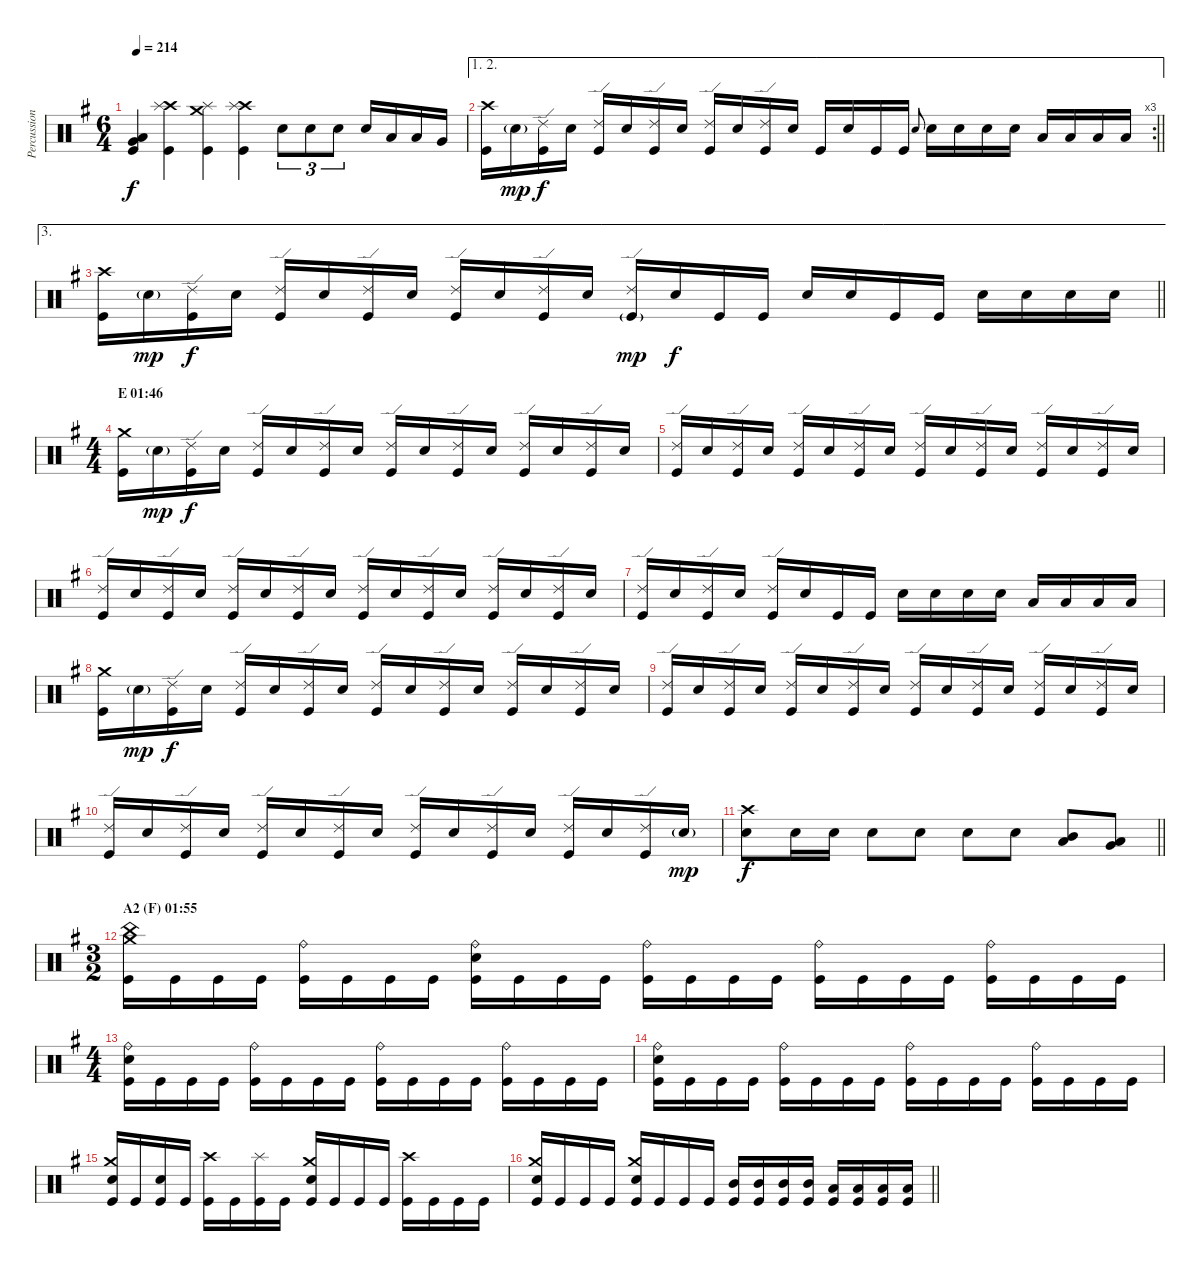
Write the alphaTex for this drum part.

\track ("Percussion" "Percussion") {instrument percussion}
\staff {score}
\articulation defaults
\ts (6 4)
\tempo 214
\clef neutral
\ks eminor
("Very Low Tom (hit)" "Low Floor Tom (hit)" "Kick (hit)").4{dy f} ("Crash high (hit)" "Splash (hit)" "Kick (hit)").4 ("Crash medium (hit)" "Splash (hit)" "Kick (hit)").4 ("Crash high (hit)" "Splash (hit)" "Kick (hit)").4 "Snare (hit) 2".8{tu (3 2)} "Snare (hit) 2".8{tu (3 2)} "Snare (hit) 2".8{tu (3 2)} "Snare (hit) 2".16 "Low Tom (hit)".16 "Low Tom (hit)".16 "Very Low Tom (hit)".16 |
\ae (1 2)
\rc 3
\barLineRight lightlight
("Crash high (hit)" "Kick (hit)").16 "Snare (hit) 2"{g}.16{dy mp} ("Ride (edge) 2" "Kick (hit)").16{dy f} "Snare (hit) 2".16 ("Ride (edge) 2" "Kick (hit)").16 "Snare (hit) 2".16 ("Ride (edge) 2" "Kick (hit)").16 "Snare (hit) 2".16 ("Ride (edge) 2" "Kick (hit)").16 "Snare (hit) 2".16 ("Ride (edge) 2" "Kick (hit)").16 "Snare (hit) 2".16 "Kick (hit)".16 "Snare (hit) 2".16 "Kick (hit)".16 "Kick (hit)".16 "Snare (hit) 2".8{gr onbeat} "Snare (hit) 2".16 "Snare (hit) 2".16 "Snare (hit) 2".16 "Snare (hit) 2".16 "Low Tom (hit)".16 "Low Tom (hit)".16 "Low Tom (hit)".16 "Low Tom (hit)".16 |
\ae 3
\barLineRight lightlight
("Crash high (hit)" "Kick (hit)").16 "Snare (hit) 2"{g}.16{dy mp} ("Ride (edge) 2" "Kick (hit)").16{dy f} "Snare (hit) 2".16 ("Ride (edge) 2" "Kick (hit)").16 "Snare (hit) 2".16 ("Ride (edge) 2" "Kick (hit)").16 "Snare (hit) 2".16 ("Ride (edge) 2" "Kick (hit)").16 "Snare (hit) 2".16 ("Ride (edge) 2" "Kick (hit)").16 "Snare (hit) 2".16 ("Ride (edge) 2" "Kick (hit)"{g}).16{dy mp} "Snare (hit) 2".16{dy f} "Kick (hit)".16 "Kick (hit)".16 "Snare (hit) 2".16 "Snare (hit) 2".16 "Kick (hit)".16 "Kick (hit)".16 "Snare (hit) 2".16 "Snare (hit) 2".16 "Snare (hit) 2".16 "Snare (hit) 2".16 |
\ts (4 4)
\section ("" "E 01:46")
("Crash medium (hit)" "Kick (hit)").16 "Snare (hit) 2"{g}.16{dy mp} ("Ride (edge) 2" "Kick (hit)").16{dy f} "Snare (hit) 2".16 ("Ride (edge) 2" "Kick (hit)").16 "Snare (hit) 2".16 ("Ride (edge) 2" "Kick (hit)").16 "Snare (hit) 2".16 ("Ride (edge) 2" "Kick (hit)").16 "Snare (hit) 2".16 ("Ride (edge) 2" "Kick (hit)").16 "Snare (hit) 2".16 ("Ride (edge) 2" "Kick (hit)").16 "Snare (hit) 2".16 ("Ride (edge) 2" "Kick (hit)").16 "Snare (hit) 2".16 |
("Ride (edge) 2" "Kick (hit)").16 "Snare (hit) 2".16 ("Ride (edge) 2" "Kick (hit)").16 "Snare (hit) 2".16 ("Ride (edge) 2" "Kick (hit)").16 "Snare (hit) 2".16 ("Ride (edge) 2" "Kick (hit)").16 "Snare (hit) 2".16 ("Ride (edge) 2" "Kick (hit)").16 "Snare (hit) 2".16 ("Ride (edge) 2" "Kick (hit)").16 "Snare (hit) 2".16 ("Ride (edge) 2" "Kick (hit)").16 "Snare (hit) 2".16 ("Ride (edge) 2" "Kick (hit)").16 "Snare (hit) 2".16 |
("Ride (edge) 2" "Kick (hit)").16 "Snare (hit) 2".16 ("Ride (edge) 2" "Kick (hit)").16 "Snare (hit) 2".16 ("Ride (edge) 2" "Kick (hit)").16 "Snare (hit) 2".16 ("Ride (edge) 2" "Kick (hit)").16 "Snare (hit) 2".16 ("Ride (edge) 2" "Kick (hit)").16 "Snare (hit) 2".16 ("Ride (edge) 2" "Kick (hit)").16 "Snare (hit) 2".16 ("Ride (edge) 2" "Kick (hit)").16 "Snare (hit) 2".16 ("Ride (edge) 2" "Kick (hit)").16 "Snare (hit) 2".16 |
("Ride (edge) 2" "Kick (hit)").16 "Snare (hit) 2".16 ("Ride (edge) 2" "Kick (hit)").16 "Snare (hit) 2".16 ("Ride (edge) 2" "Kick (hit)").16 "Snare (hit) 2".16 "Kick (hit)".16 "Kick (hit)".16 "Snare (hit) 2".16 "Snare (hit) 2".16 "Snare (hit) 2".16 "Snare (hit) 2".16 "Low Tom (hit)".16 "Low Tom (hit)".16 "Low Tom (hit)".16 "Low Tom (hit)".16 |
("Crash medium (hit)" "Kick (hit)").16 "Snare (hit) 2"{g}.16{dy mp} ("Ride (edge) 2" "Kick (hit)").16{dy f} "Snare (hit) 2".16 ("Ride (edge) 2" "Kick (hit)").16 "Snare (hit) 2".16 ("Ride (edge) 2" "Kick (hit)").16 "Snare (hit) 2".16 ("Ride (edge) 2" "Kick (hit)").16 "Snare (hit) 2".16 ("Ride (edge) 2" "Kick (hit)").16 "Snare (hit) 2".16 ("Ride (edge) 2" "Kick (hit)").16 "Snare (hit) 2".16 ("Ride (edge) 2" "Kick (hit)").16 "Snare (hit) 2".16 |
("Ride (edge) 2" "Kick (hit)").16 "Snare (hit) 2".16 ("Ride (edge) 2" "Kick (hit)").16 "Snare (hit) 2".16 ("Ride (edge) 2" "Kick (hit)").16 "Snare (hit) 2".16 ("Ride (edge) 2" "Kick (hit)").16 "Snare (hit) 2".16 ("Ride (edge) 2" "Kick (hit)").16 "Snare (hit) 2".16 ("Ride (edge) 2" "Kick (hit)").16 "Snare (hit) 2".16 ("Ride (edge) 2" "Kick (hit)").16 "Snare (hit) 2".16 ("Ride (edge) 2" "Kick (hit)").16 "Snare (hit) 2".16 |
("Ride (edge) 2" "Kick (hit)").16 "Snare (hit) 2".16 ("Ride (edge) 2" "Kick (hit)").16 "Snare (hit) 2".16 ("Ride (edge) 2" "Kick (hit)").16 "Snare (hit) 2".16 ("Ride (edge) 2" "Kick (hit)").16 "Snare (hit) 2".16 ("Ride (edge) 2" "Kick (hit)").16 "Snare (hit) 2".16 ("Ride (edge) 2" "Kick (hit)").16 "Snare (hit) 2".16 ("Ride (edge) 2" "Kick (hit)").16 "Snare (hit) 2".16 ("Ride (edge) 2" "Kick (hit)").16 "Snare (hit) 2"{g}.16{dy mp} |
\barLineRight lightlight
("Crash high (hit)" "Snare (hit) 2").8{dy f} "Snare (hit) 2".16 "Snare (hit) 2".16 "Snare (hit) 2".8 "Snare (hit) 2".8 "Snare (hit) 2".8 "Snare (hit) 2".8 ("Mid Tom (hit)" "Low Tom (hit)").8 ("Low Tom (hit)" "Very Low Tom (hit)").8 |
\ts (3 2)
\section ("" "A2 (F) 01:55")
("Crash medium (hit)" "China (hit)" "Kick (hit)").16 "Kick (hit)".16 "Kick (hit)".16 "Kick (hit)".16 ("Ride (bell)" "Kick (hit)").16 "Kick (hit)".16 "Kick (hit)".16 "Kick (hit)".16 ("Ride (bell)" "Snare (hit) 2" "Kick (hit)").16 "Kick (hit)".16 "Kick (hit)".16 "Kick (hit)".16 ("Ride (bell)" "Kick (hit)").16 "Kick (hit)".16 "Kick (hit)".16 "Kick (hit)".16 ("Ride (bell)" "Kick (hit)").16 "Kick (hit)".16 "Kick (hit)".16 "Kick (hit)".16 ("Ride (bell)" "Kick (hit)").16 "Kick (hit)".16 "Kick (hit)".16 "Kick (hit)".16 |
\ts (4 4)
("Ride (bell)" "Snare (hit) 2" "Kick (hit)").16 "Kick (hit)".16 "Kick (hit)".16 "Kick (hit)".16 ("Ride (bell)" "Kick (hit)").16 "Kick (hit)".16 "Kick (hit)".16 "Kick (hit)".16 ("Ride (bell)" "Kick (hit)").16 "Kick (hit)".16 "Kick (hit)".16 "Kick (hit)".16 ("Ride (bell)" "Kick (hit)").16 "Kick (hit)".16 "Kick (hit)".16 "Kick (hit)".16 |
("Ride (bell)" "Snare (hit) 2" "Kick (hit)").16 "Kick (hit)".16 "Kick (hit)".16 "Kick (hit)".16 ("Ride (bell)" "Kick (hit)").16 "Kick (hit)".16 "Kick (hit)".16 "Kick (hit)".16 ("Ride (bell)" "Kick (hit)").16 "Kick (hit)".16 "Kick (hit)".16 "Kick (hit)".16 ("Ride (bell)" "Kick (hit)").16 "Kick (hit)".16 "Kick (hit)".16 "Kick (hit)".16 |
("Crash medium (hit)" "Snare (hit) 2" "Kick (hit)").16 "Kick (hit)".16 ("Snare (hit) 2" "Kick (hit)").16 "Kick (hit)".16 ("Crash high (hit)" "Kick (hit)").16 "Kick (hit)".16 ("Splash (hit)" "Kick (hit)").16 "Kick (hit)".16 ("Crash medium (hit)" "Snare (hit) 2" "Kick (hit)").16 "Kick (hit)".16 "Kick (hit)".16 "Kick (hit)".16 ("Crash high (hit)" "Kick (hit)").16 "Kick (hit)".16 "Kick (hit)".16 "Kick (hit)".16 |
\barLineRight lightlight
("Crash medium (hit)" "Snare (hit) 2" "Kick (hit)").16 "Kick (hit)".16 "Kick (hit)".16 "Kick (hit)".16 ("Crash medium (hit)" "Snare (hit) 2" "Kick (hit)").16 "Kick (hit)".16 "Kick (hit)".16 "Kick (hit)".16 ("Mid Tom (hit)" "Kick (hit)").16 ("Mid Tom (hit)" "Kick (hit)").16 ("Mid Tom (hit)" "Kick (hit)").16 ("Mid Tom (hit)" "Kick (hit)").16 ("Low Tom (hit)" "Kick (hit)").16 ("Low Tom (hit)" "Kick (hit)").16 ("Low Tom (hit)" "Kick (hit)").16 ("Low Tom (hit)" "Kick (hit)").16
